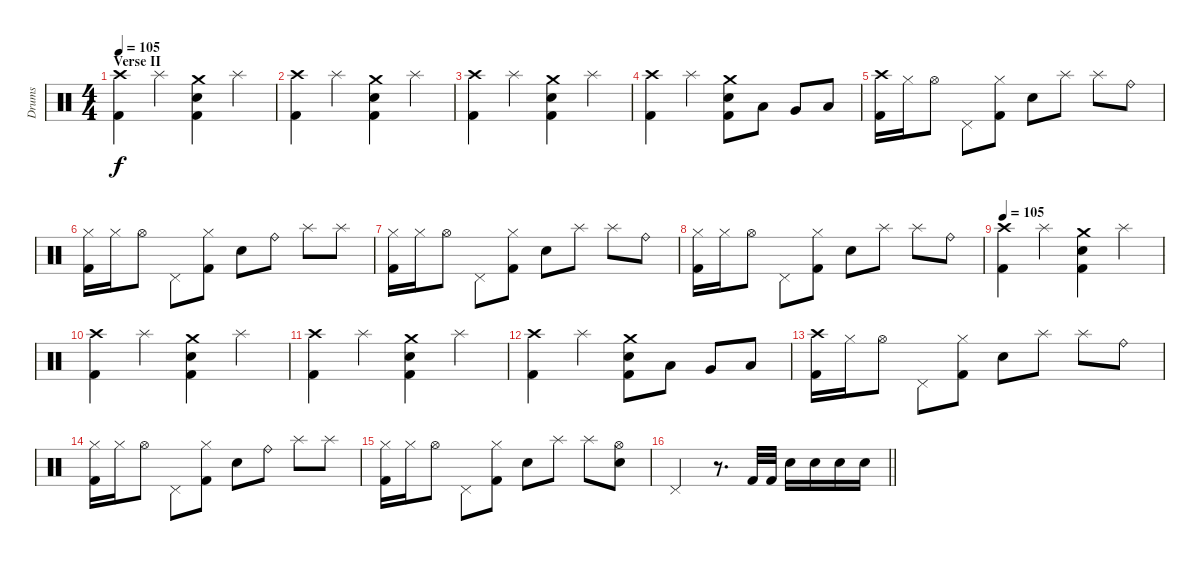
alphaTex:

\track ("Drums" "Drums") {instrument percussion}
\staff {score}
\articulation defaults
\ts (4 4)
\section ("" "Verse II")
\tempo 105
\clef neutral
\ks c
("Crash high (hit)" "Kick (hit) 2").4{dy f} "Splash (hit)".4 ("Snare (hit) 2" "Crash medium (hit)" "Kick (hit) 2").4 "Splash (hit)".4 |
("Crash high (hit)" "Kick (hit) 2").4 "Splash (hit)".4 ("Snare (hit) 2" "Crash medium (hit)" "Kick (hit) 2").4 "Splash (hit)".4 |
("Crash high (hit)" "Kick (hit) 2").4 "Splash (hit)".4 ("Snare (hit) 2" "Crash medium (hit)" "Kick (hit) 2").4 "Splash (hit)".4 |
("Crash high (hit)" "Kick (hit) 2").4 "Splash (hit)".4 ("Snare (hit) 2" "Crash medium (hit)" "Kick (hit) 2").8 "Low Tom (hit)".8 "Very Low Tom (hit)".8 "Low Floor Tom (hit)".8 |
("Kick (hit) 2" "Crash high (hit)").16 "Hi-Hat (closed)".16 "Hi-Hat (open)".8 "Pedal Hi-Hat (hit)".8 ("Kick (hit) 2" "Hi-Hat (closed)").8 "Snare (hit) 2".8 "Splash (hit)".8 "Splash (hit)".8 "Ride (bell)".8 |
("Kick (hit) 2" "Hi-Hat (closed)").16 "Hi-Hat (closed)".16 "Hi-Hat (open)".8 "Pedal Hi-Hat (hit)".8 ("Kick (hit) 2" "Hi-Hat (closed)").8 "Snare (hit) 2".8 "Ride (bell)".8 "Splash (hit)".8 "Splash (hit)".8 |
("Kick (hit) 2" "Hi-Hat (closed)").16 "Hi-Hat (closed)".16 "Hi-Hat (open)".8 "Pedal Hi-Hat (hit)".8 ("Kick (hit) 2" "Hi-Hat (closed)").8 "Snare (hit) 2".8 "Splash (hit)".8 "Splash (hit)".8 "Ride (bell)".8 |
("Kick (hit) 2" "Hi-Hat (closed)").16 "Hi-Hat (closed)".16 "Hi-Hat (open)".8 "Pedal Hi-Hat (hit)".8 ("Kick (hit) 2" "Hi-Hat (closed)").8 "Snare (hit) 2".8 "Splash (hit)".8 "Splash (hit)".8 "Ride (bell)".8 |
\tempo 105
("Crash high (hit)" "Kick (hit) 2").4 "Splash (hit)".4 ("Snare (hit) 2" "Crash medium (hit)" "Kick (hit) 2").4 "Splash (hit)".4 |
("Crash high (hit)" "Kick (hit) 2").4 "Splash (hit)".4 ("Snare (hit) 2" "Crash medium (hit)" "Kick (hit) 2").4 "Splash (hit)".4 |
("Crash high (hit)" "Kick (hit) 2").4 "Splash (hit)".4 ("Snare (hit) 2" "Crash medium (hit)" "Kick (hit) 2").4 "Splash (hit)".4 |
("Crash high (hit)" "Kick (hit) 2").4 "Splash (hit)".4 ("Snare (hit) 2" "Crash medium (hit)" "Kick (hit) 2").8 "Low Tom (hit)".8 "Very Low Tom (hit)".8 "Low Floor Tom (hit)".8 |
("Kick (hit) 2" "Crash high (hit)").16 "Hi-Hat (closed)".16 "Hi-Hat (open)".8 "Pedal Hi-Hat (hit)".8 ("Kick (hit) 2" "Hi-Hat (closed)").8 "Snare (hit) 2".8 "Splash (hit)".8 "Splash (hit)".8 "Ride (bell)".8 |
("Kick (hit) 2" "Hi-Hat (closed)").16 "Hi-Hat (closed)".16 "Hi-Hat (open)".8 "Pedal Hi-Hat (hit)".8 ("Kick (hit) 2" "Hi-Hat (closed)").8 "Snare (hit) 2".8 "Ride (bell)".8 "Splash (hit)".8 "Splash (hit)".8 |
("Kick (hit) 2" "Hi-Hat (closed)").16 "Hi-Hat (closed)".16 "Hi-Hat (open)".8 "Pedal Hi-Hat (hit)".8 ("Kick (hit) 2" "Hi-Hat (closed)").8 "Snare (hit) 2".8 "Splash (hit)".8 "Splash (hit)".8 ("Snare (hit) 2" "Hi-Hat (open)").8 |
\barLineRight lightlight "Pedal Hi-Hat (hit)".2
r.8{d} "Kick (hit) 2".32 "Kick (hit) 2".32 "Snare (hit) 2".16 "Snare (hit) 2".16 "Snare (hit) 2".16 "Snare (hit) 2".16
